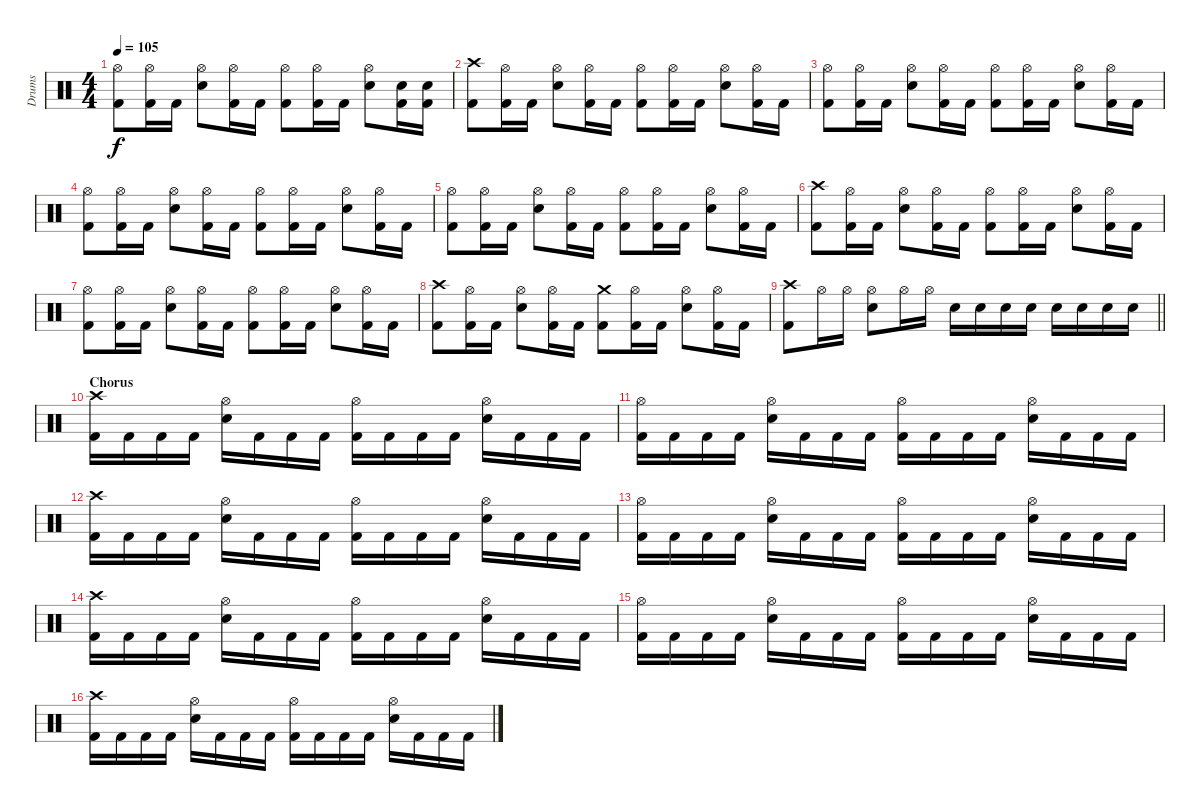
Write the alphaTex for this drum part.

\track ("Drums" "Drums") {instrument percussion}
\staff {score}
\articulation defaults
\ts (4 4)
\tempo 105
\clef neutral
\ks c
("Hi-Hat (open)" "Kick (hit) 2").8{dy f} ("Hi-Hat (open)" "Kick (hit) 2").16 "Kick (hit) 2".16 ("Hi-Hat (open)" "Electric Snare (hit)").8 ("Hi-Hat (open)" "Kick (hit) 2").16 "Kick (hit) 2".16 ("Hi-Hat (open)" "Kick (hit) 2").8 ("Hi-Hat (open)" "Kick (hit) 2").16 "Kick (hit) 2".16 ("Hi-Hat (open)" "Electric Snare (hit)").8 ("Electric Snare (hit)" "Kick (hit) 2").16 ("Electric Snare (hit)" "Kick (hit) 2").16 |
("Crash high (hit)" "Kick (hit) 2").8 ("Hi-Hat (open)" "Kick (hit) 2").16 "Kick (hit) 2".16 ("Hi-Hat (open)" "Electric Snare (hit)").8 ("Hi-Hat (open)" "Kick (hit) 2").16 "Kick (hit) 2".16 ("Hi-Hat (open)" "Kick (hit) 2").8 ("Hi-Hat (open)" "Kick (hit) 2").16 "Kick (hit) 2".16 ("Hi-Hat (open)" "Electric Snare (hit)").8 ("Hi-Hat (open)" "Kick (hit) 2").16 "Kick (hit) 2".16 |
("Hi-Hat (open)" "Kick (hit) 2").8 ("Hi-Hat (open)" "Kick (hit) 2").16 "Kick (hit) 2".16 ("Hi-Hat (open)" "Electric Snare (hit)").8 ("Hi-Hat (open)" "Kick (hit) 2").16 "Kick (hit) 2".16 ("Hi-Hat (open)" "Kick (hit) 2").8 ("Hi-Hat (open)" "Kick (hit) 2").16 "Kick (hit) 2".16 ("Hi-Hat (open)" "Electric Snare (hit)").8 ("Hi-Hat (open)" "Kick (hit) 2").16 "Kick (hit) 2".16 |
("Hi-Hat (open)" "Kick (hit) 2").8 ("Hi-Hat (open)" "Kick (hit) 2").16 "Kick (hit) 2".16 ("Hi-Hat (open)" "Electric Snare (hit)").8 ("Hi-Hat (open)" "Kick (hit) 2").16 "Kick (hit) 2".16 ("Hi-Hat (open)" "Kick (hit) 2").8 ("Hi-Hat (open)" "Kick (hit) 2").16 "Kick (hit) 2".16 ("Hi-Hat (open)" "Electric Snare (hit)").8 ("Hi-Hat (open)" "Kick (hit) 2").16 "Kick (hit) 2".16 |
("Hi-Hat (open)" "Kick (hit) 2").8 ("Hi-Hat (open)" "Kick (hit) 2").16 "Kick (hit) 2".16 ("Hi-Hat (open)" "Electric Snare (hit)").8 ("Hi-Hat (open)" "Kick (hit) 2").16 "Kick (hit) 2".16 ("Hi-Hat (open)" "Kick (hit) 2").8 ("Hi-Hat (open)" "Kick (hit) 2").16 "Kick (hit) 2".16 ("Hi-Hat (open)" "Electric Snare (hit)").8 ("Hi-Hat (open)" "Kick (hit) 2").16 "Kick (hit) 2".16 |
("Crash high (hit)" "Kick (hit) 2").8 ("Hi-Hat (open)" "Kick (hit) 2").16 "Kick (hit) 2".16 ("Hi-Hat (open)" "Electric Snare (hit)").8 ("Hi-Hat (open)" "Kick (hit) 2").16 "Kick (hit) 2".16 ("Hi-Hat (open)" "Kick (hit) 2").8 ("Hi-Hat (open)" "Kick (hit) 2").16 "Kick (hit) 2".16 ("Hi-Hat (open)" "Electric Snare (hit)").8 ("Hi-Hat (open)" "Kick (hit) 2").16 "Kick (hit) 2".16 |
("Hi-Hat (open)" "Kick (hit) 2").8 ("Hi-Hat (open)" "Kick (hit) 2").16 "Kick (hit) 2".16 ("Hi-Hat (open)" "Electric Snare (hit)").8 ("Hi-Hat (open)" "Kick (hit) 2").16 "Kick (hit) 2".16 ("Hi-Hat (open)" "Kick (hit) 2").8 ("Hi-Hat (open)" "Kick (hit) 2").16 "Kick (hit) 2".16 ("Hi-Hat (open)" "Electric Snare (hit)").8 ("Hi-Hat (open)" "Kick (hit) 2").16 "Kick (hit) 2".16 |
("Crash high (hit)" "Kick (hit) 2").8 ("Hi-Hat (open)" "Kick (hit) 2").16 "Kick (hit) 2".16 ("Hi-Hat (open)" "Electric Snare (hit)").8 ("Hi-Hat (open)" "Kick (hit) 2").16 "Kick (hit) 2".16 ("Crash medium (hit)" "Kick (hit) 2").8 ("Hi-Hat (open)" "Kick (hit) 2").16 "Kick (hit) 2".16 ("Hi-Hat (open)" "Electric Snare (hit)").8 ("Hi-Hat (open)" "Kick (hit) 2").16 "Kick (hit) 2".16 |
\barLineRight lightlight
("Crash high (hit)" "Kick (hit) 2").8 "Hi-Hat (open)".16 "Hi-Hat (open)".16 ("Hi-Hat (open)" "Electric Snare (hit)").8 "Hi-Hat (open)".16 "Hi-Hat (open)".16 "Electric Snare (hit)".16 "Electric Snare (hit)".16 "Electric Snare (hit)".16 "Electric Snare (hit)".16 "Electric Snare (hit)".16 "Electric Snare (hit)".16 "Electric Snare (hit)".16 "Electric Snare (hit)".16 |
\section ("" "Chorus")
("Crash high (hit)" "Kick (hit) 2").16 "Kick (hit) 2".16 "Kick (hit) 2".16 "Kick (hit) 2".16 ("Hi-Hat (open)" "Electric Snare (hit)").16 "Kick (hit) 2".16 "Kick (hit) 2".16 "Kick (hit) 2".16 ("Hi-Hat (open)" "Kick (hit) 2").16 "Kick (hit) 2".16 "Kick (hit) 2".16 "Kick (hit) 2".16 ("Hi-Hat (open)" "Electric Snare (hit)").16 "Kick (hit) 2".16 "Kick (hit) 2".16 "Kick (hit) 2".16 |
("Hi-Hat (open)" "Kick (hit) 2").16 "Kick (hit) 2".16 "Kick (hit) 2".16 "Kick (hit) 2".16 ("Hi-Hat (open)" "Electric Snare (hit)").16 "Kick (hit) 2".16 "Kick (hit) 2".16 "Kick (hit) 2".16 ("Hi-Hat (open)" "Kick (hit) 2").16 "Kick (hit) 2".16 "Kick (hit) 2".16 "Kick (hit) 2".16 ("Hi-Hat (open)" "Electric Snare (hit)").16 "Kick (hit) 2".16 "Kick (hit) 2".16 "Kick (hit) 2".16 |
("Crash high (hit)" "Kick (hit) 2").16 "Kick (hit) 2".16 "Kick (hit) 2".16 "Kick (hit) 2".16 ("Hi-Hat (open)" "Electric Snare (hit)").16 "Kick (hit) 2".16 "Kick (hit) 2".16 "Kick (hit) 2".16 ("Hi-Hat (open)" "Kick (hit) 2").16 "Kick (hit) 2".16 "Kick (hit) 2".16 "Kick (hit) 2".16 ("Hi-Hat (open)" "Electric Snare (hit)").16 "Kick (hit) 2".16 "Kick (hit) 2".16 "Kick (hit) 2".16 |
("Hi-Hat (open)" "Kick (hit) 2").16 "Kick (hit) 2".16 "Kick (hit) 2".16 "Kick (hit) 2".16 ("Hi-Hat (open)" "Electric Snare (hit)").16 "Kick (hit) 2".16 "Kick (hit) 2".16 "Kick (hit) 2".16 ("Hi-Hat (open)" "Kick (hit) 2").16 "Kick (hit) 2".16 "Kick (hit) 2".16 "Kick (hit) 2".16 ("Hi-Hat (open)" "Electric Snare (hit)").16 "Kick (hit) 2".16 "Kick (hit) 2".16 "Kick (hit) 2".16 |
("Crash high (hit)" "Kick (hit) 2").16 "Kick (hit) 2".16 "Kick (hit) 2".16 "Kick (hit) 2".16 ("Hi-Hat (open)" "Electric Snare (hit)").16 "Kick (hit) 2".16 "Kick (hit) 2".16 "Kick (hit) 2".16 ("Hi-Hat (open)" "Kick (hit) 2").16 "Kick (hit) 2".16 "Kick (hit) 2".16 "Kick (hit) 2".16 ("Hi-Hat (open)" "Electric Snare (hit)").16 "Kick (hit) 2".16 "Kick (hit) 2".16 "Kick (hit) 2".16 |
("Hi-Hat (open)" "Kick (hit) 2").16 "Kick (hit) 2".16 "Kick (hit) 2".16 "Kick (hit) 2".16 ("Hi-Hat (open)" "Electric Snare (hit)").16 "Kick (hit) 2".16 "Kick (hit) 2".16 "Kick (hit) 2".16 ("Hi-Hat (open)" "Kick (hit) 2").16 "Kick (hit) 2".16 "Kick (hit) 2".16 "Kick (hit) 2".16 ("Hi-Hat (open)" "Electric Snare (hit)").16 "Kick (hit) 2".16 "Kick (hit) 2".16 "Kick (hit) 2".16 |
("Crash high (hit)" "Kick (hit) 2").16 "Kick (hit) 2".16 "Kick (hit) 2".16 "Kick (hit) 2".16 ("Hi-Hat (open)" "Electric Snare (hit)").16 "Kick (hit) 2".16 "Kick (hit) 2".16 "Kick (hit) 2".16 ("Hi-Hat (open)" "Kick (hit) 2").16 "Kick (hit) 2".16 "Kick (hit) 2".16 "Kick (hit) 2".16 ("Hi-Hat (open)" "Electric Snare (hit)").16 "Kick (hit) 2".16 "Kick (hit) 2".16 "Kick (hit) 2".16
